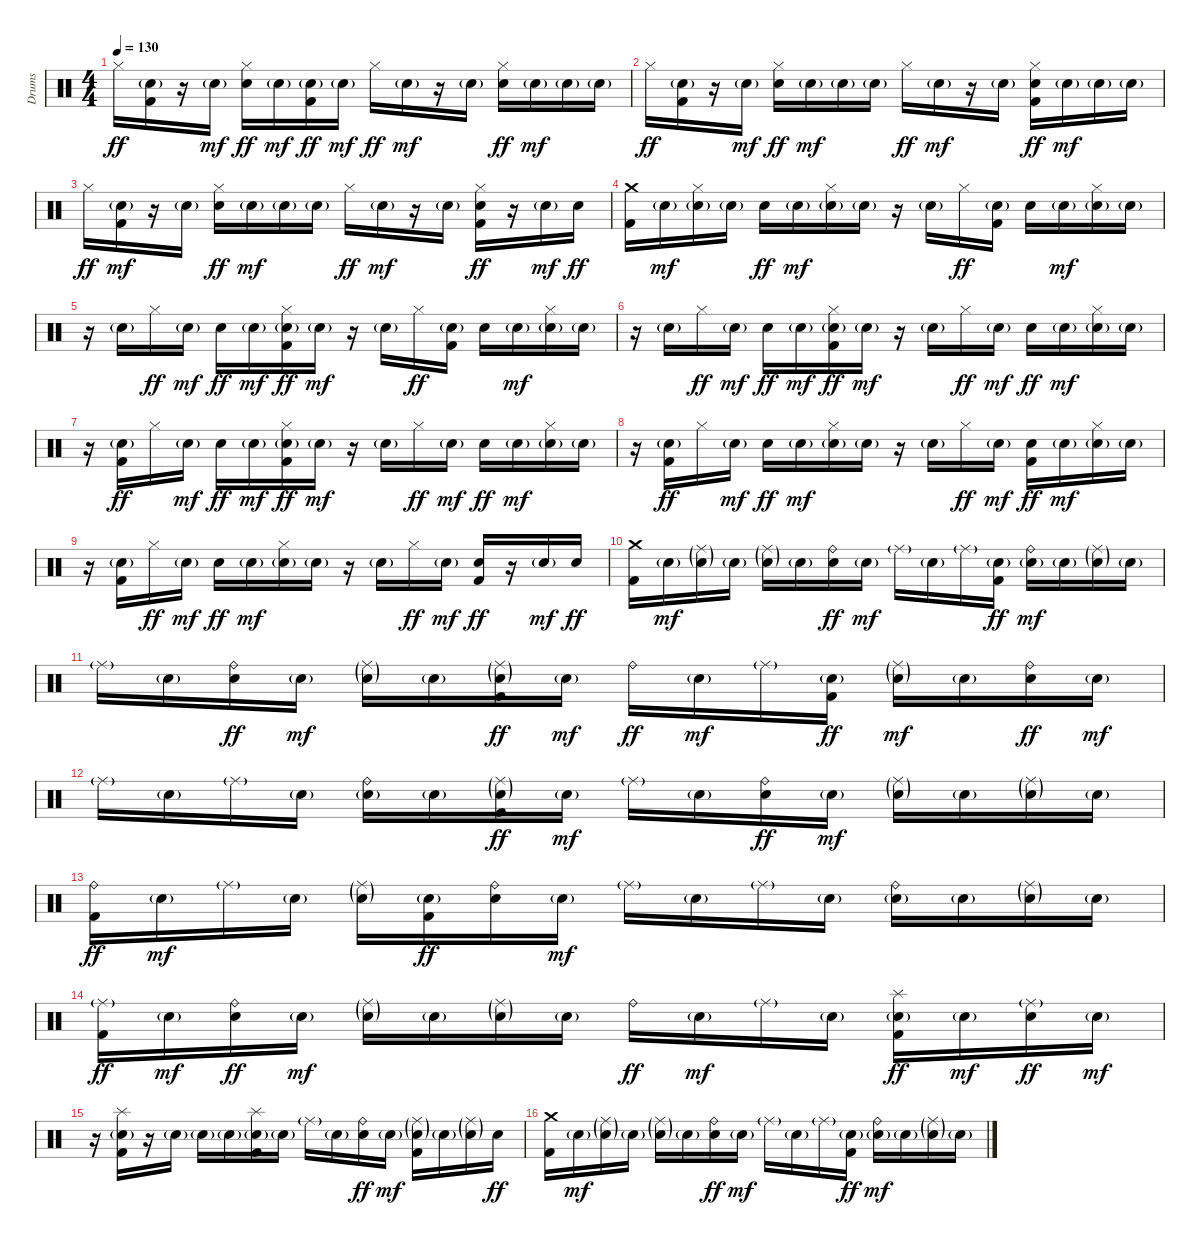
\track ("Drums" "Drums") {instrument percussion}
\staff {score}
\articulation defaults
\ts (4 4)
\tempo 130
\clef neutral
\ks c "Hi-Hat (closed)".16{dy ff}
("Electric Snare (hit)"{g} "Kick (hit) 2").16 r.16 "Electric Snare (hit)"{g}.16{dy mf} ("Hi-Hat (closed)" "Electric Snare (hit)").16{dy ff} "Electric Snare (hit)"{g}.16{dy mf} ("Electric Snare (hit)"{g} "Kick (hit) 2").16{dy ff} "Electric Snare (hit)"{g}.16{dy mf} "Hi-Hat (closed)".16{dy ff} "Electric Snare (hit)"{g}.16{dy mf} r.16 "Electric Snare (hit)"{g}.16 ("Hi-Hat (closed)" "Electric Snare (hit)").16{dy ff} "Electric Snare (hit)"{g}.16{dy mf} "Electric Snare (hit)"{g}.16 "Electric Snare (hit)"{g}.16 |
"Hi-Hat (closed)".16{dy ff} ("Electric Snare (hit)"{g} "Kick (hit) 2").16 r.16 "Electric Snare (hit)"{g}.16{dy mf} ("Hi-Hat (closed)" "Electric Snare (hit)").16{dy ff} "Electric Snare (hit)"{g}.16{dy mf} "Electric Snare (hit)"{g}.16 "Electric Snare (hit)"{g}.16 "Hi-Hat (closed)".16{dy ff} "Electric Snare (hit)"{g}.16{dy mf} r.16 "Electric Snare (hit)"{g}.16 ("Hi-Hat (closed)" "Electric Snare (hit)" "Kick (hit) 2").16{dy ff} "Electric Snare (hit)"{g}.16{dy mf} "Electric Snare (hit)"{g}.16 "Electric Snare (hit)"{g}.16 |
"Hi-Hat (closed)".16{dy ff} ("Electric Snare (hit)"{g} "Kick (hit) 2").16{dy mf} r.16 "Electric Snare (hit)"{g}.16 ("Hi-Hat (closed)" "Electric Snare (hit)").16{dy ff} "Electric Snare (hit)"{g}.16{dy mf} "Electric Snare (hit)"{g}.16 "Electric Snare (hit)"{g}.16 "Hi-Hat (closed)".16{dy ff} "Electric Snare (hit)"{g}.16{dy mf} r.16 "Electric Snare (hit)"{g}.16 ("Hi-Hat (closed)" "Electric Snare (hit)" "Kick (hit) 2").16{dy ff} r.16 "Electric Snare (hit)"{g}.16{dy mf} "Electric Snare (hit)".16{dy ff} |
("Crash medium (hit)" "Kick (hit) 2").16 "Electric Snare (hit)"{g}.16{dy mf} ("Hi-Hat (closed)" "Electric Snare (hit)"{g}).16 "Electric Snare (hit)"{g}.16 "Electric Snare (hit)".16{dy ff} "Electric Snare (hit)"{g}.16{dy mf} ("Hi-Hat (closed)" "Electric Snare (hit)"{g}).16 "Electric Snare (hit)"{g}.16 r.16 "Electric Snare (hit)"{g}.16 "Hi-Hat (closed)".16{dy ff} ("Electric Snare (hit)"{g} "Kick (hit) 2").16 "Electric Snare (hit)".16 "Electric Snare (hit)"{g}.16{dy mf} ("Hi-Hat (closed)" "Electric Snare (hit)"{g}).16 "Electric Snare (hit)"{g}.16 |
r.16 "Electric Snare (hit)"{g}.16 "Hi-Hat (closed)".16{dy ff} "Electric Snare (hit)"{g}.16{dy mf} "Electric Snare (hit)".16{dy ff} "Electric Snare (hit)"{g}.16{dy mf} ("Hi-Hat (closed)" "Electric Snare (hit)"{g} "Kick (hit) 2").16{dy ff} "Electric Snare (hit)"{g}.16{dy mf} r.16 "Electric Snare (hit)"{g}.16 "Hi-Hat (closed)".16{dy ff} ("Electric Snare (hit)"{g} "Kick (hit) 2").16 "Electric Snare (hit)".16 "Electric Snare (hit)"{g}.16{dy mf} ("Hi-Hat (closed)" "Electric Snare (hit)"{g}).16 "Electric Snare (hit)"{g}.16 |
r.16 "Electric Snare (hit)"{g}.16 "Hi-Hat (closed)".16{dy ff} "Electric Snare (hit)"{g}.16{dy mf} "Electric Snare (hit)".16{dy ff} "Electric Snare (hit)"{g}.16{dy mf} ("Hi-Hat (closed)" "Electric Snare (hit)"{g} "Kick (hit) 2").16{dy ff} "Electric Snare (hit)"{g}.16{dy mf} r.16 "Electric Snare (hit)"{g}.16 "Hi-Hat (closed)".16{dy ff} "Electric Snare (hit)"{g}.16{dy mf} "Electric Snare (hit)".16{dy ff} "Electric Snare (hit)"{g}.16{dy mf} ("Hi-Hat (closed)" "Electric Snare (hit)"{g}).16 "Electric Snare (hit)"{g}.16 |
r.16 ("Electric Snare (hit)"{g} "Kick (hit) 2").16{dy ff} "Hi-Hat (closed)".16 "Electric Snare (hit)"{g}.16{dy mf} "Electric Snare (hit)".16{dy ff} "Electric Snare (hit)"{g}.16{dy mf} ("Hi-Hat (closed)" "Electric Snare (hit)"{g} "Kick (hit) 2").16{dy ff} "Electric Snare (hit)"{g}.16{dy mf} r.16 "Electric Snare (hit)"{g}.16 "Hi-Hat (closed)".16{dy ff} "Electric Snare (hit)"{g}.16{dy mf} "Electric Snare (hit)".16{dy ff} "Electric Snare (hit)"{g}.16{dy mf} ("Hi-Hat (closed)" "Electric Snare (hit)"{g}).16 "Electric Snare (hit)"{g}.16 |
r.16 ("Electric Snare (hit)"{g} "Kick (hit) 2").16{dy ff} "Hi-Hat (closed)".16 "Electric Snare (hit)"{g}.16{dy mf} "Electric Snare (hit)".16{dy ff} "Electric Snare (hit)"{g}.16{dy mf} ("Hi-Hat (closed)" "Electric Snare (hit)"{g}).16 "Electric Snare (hit)"{g}.16 r.16 "Electric Snare (hit)"{g}.16 "Hi-Hat (closed)".16{dy ff} "Electric Snare (hit)"{g}.16{dy mf} ("Electric Snare (hit)" "Kick (hit) 2").16{dy ff} "Electric Snare (hit)"{g}.16{dy mf} ("Hi-Hat (closed)" "Electric Snare (hit)"{g}).16 "Electric Snare (hit)"{g}.16 |
r.16 ("Electric Snare (hit)"{g} "Kick (hit) 2").16 "Hi-Hat (closed)".16{dy ff} "Electric Snare (hit)"{g}.16{dy mf} "Electric Snare (hit)".16{dy ff} "Electric Snare (hit)"{g}.16{dy mf} ("Hi-Hat (closed)" "Electric Snare (hit)"{g}).16 "Electric Snare (hit)"{g}.16 r.16 "Electric Snare (hit)"{g}.16 "Hi-Hat (closed)".16{dy ff} "Electric Snare (hit)"{g}.16{dy mf} ("Electric Snare (hit)" "Kick (hit) 2").16{dy ff} r.16 "Electric Snare (hit)"{g}.16{dy mf} "Electric Snare (hit)".16{dy ff} |
("Crash medium (hit)" "Kick (hit) 2").16 "Electric Snare (hit)"{g}.16{dy mf} ("Ride (middle)"{g} "Electric Snare (hit)"{g}).16 "Electric Snare (hit)"{g}.16 ("Ride (middle)"{g} "Electric Snare (hit)"{g}).16 "Electric Snare (hit)"{g}.16 ("Ride (bell)" "Electric Snare (hit)").16{dy ff} "Electric Snare (hit)"{g}.16{dy mf} "Ride (middle)"{g}.16 "Electric Snare (hit)"{g}.16 "Ride (middle)"{g}.16 ("Electric Snare (hit)"{g} "Kick (hit) 2").16{dy ff} ("Ride (bell)" "Electric Snare (hit)"{g}).16{dy mf} "Electric Snare (hit)"{g}.16 ("Ride (middle)"{g} "Electric Snare (hit)"{g}).16 "Electric Snare (hit)"{g}.16 |
"Ride (middle)"{g}.16 "Electric Snare (hit)"{g}.16 ("Ride (bell)" "Electric Snare (hit)").16{dy ff} "Electric Snare (hit)"{g}.16{dy mf} ("Ride (middle)"{g} "Electric Snare (hit)"{g}).16 "Electric Snare (hit)"{g}.16 ("Ride (middle)"{g} "Electric Snare (hit)"{g} "Kick (hit) 2").16{dy ff} "Electric Snare (hit)"{g}.16{dy mf} "Ride (bell)".16{dy ff} "Electric Snare (hit)"{g}.16{dy mf} "Ride (middle)"{g}.16 ("Electric Snare (hit)"{g} "Kick (hit) 2").16{dy ff} ("Ride (middle)"{g} "Electric Snare (hit)"{g}).16{dy mf} "Electric Snare (hit)"{g}.16 ("Ride (bell)" "Electric Snare (hit)").16{dy ff} "Electric Snare (hit)"{g}.16{dy mf} |
"Ride (middle)"{g}.16 "Electric Snare (hit)"{g}.16 "Ride (middle)"{g}.16 "Electric Snare (hit)"{g}.16 ("Ride (bell)" "Electric Snare (hit)"{g}).16 "Electric Snare (hit)"{g}.16 ("Ride (middle)"{g} "Electric Snare (hit)"{g} "Kick (hit) 2").16{dy ff} "Electric Snare (hit)"{g}.16{dy mf} "Ride (middle)"{g}.16 "Electric Snare (hit)"{g}.16 ("Ride (bell)" "Electric Snare (hit)").16{dy ff} "Electric Snare (hit)"{g}.16{dy mf} ("Ride (middle)"{g} "Electric Snare (hit)"{g}).16 "Electric Snare (hit)"{g}.16 ("Ride (middle)"{g} "Electric Snare (hit)"{g}).16 "Electric Snare (hit)"{g}.16 |
("Ride (bell)" "Kick (hit) 2").16{dy ff} "Electric Snare (hit)"{g}.16{dy mf} "Ride (middle)"{g}.16 "Electric Snare (hit)"{g}.16 ("Ride (middle)"{g} "Electric Snare (hit)"{g}).16 ("Electric Snare (hit)"{g} "Kick (hit) 2").16{dy ff} ("Ride (bell)" "Electric Snare (hit)").16 "Electric Snare (hit)"{g}.16{dy mf} "Ride (middle)"{g}.16 "Electric Snare (hit)"{g}.16 "Ride (middle)"{g}.16 "Electric Snare (hit)"{g}.16 ("Ride (bell)" "Electric Snare (hit)"{g}).16 "Electric Snare (hit)"{g}.16 ("Ride (middle)"{g} "Electric Snare (hit)"{g}).16 "Electric Snare (hit)"{g}.16 |
("Ride (middle)"{g} "Kick (hit) 2").16{dy ff} "Electric Snare (hit)"{g}.16{dy mf} ("Ride (bell)" "Electric Snare (hit)").16{dy ff} "Electric Snare (hit)"{g}.16{dy mf} ("Ride (middle)"{g} "Electric Snare (hit)"{g}).16 "Electric Snare (hit)"{g}.16 ("Ride (middle)"{g} "Electric Snare (hit)"{g}).16 "Electric Snare (hit)"{g}.16 "Ride (bell)".16{dy ff} "Electric Snare (hit)"{g}.16{dy mf} "Ride (middle)"{g}.16 "Electric Snare (hit)"{g}.16 ("Splash (hit)" "Electric Snare (hit)"{g} "Kick (hit) 2").16{dy ff} "Electric Snare (hit)"{g}.16{dy mf} ("Ride (middle)"{g} "Electric Snare (hit)").16{dy ff} "Electric Snare (hit)"{g}.16{dy mf} |
r.16 ("Splash (hit)" "Electric Snare (hit)"{g} "Kick (hit) 2").16 r.16 "Electric Snare (hit)"{g}.16 "Electric Snare (hit)"{g}.16 "Electric Snare (hit)"{g}.16 ("Splash (hit)" "Electric Snare (hit)"{g} "Kick (hit) 2").16 "Electric Snare (hit)"{g}.16 "Ride (middle)"{g}.16 "Electric Snare (hit)"{g}.16 ("Ride (bell)" "Electric Snare (hit)").16{dy ff} "Electric Snare (hit)"{g}.16{dy mf} ("Ride (middle)"{g} "Electric Snare (hit)"{g} "Kick (hit) 2").16 "Electric Snare (hit)"{g}.16 ("Ride (middle)"{g} "Electric Snare (hit)"{g}).16 "Electric Snare (hit)".16{dy ff} |
("Crash medium (hit)" "Kick (hit) 2").16 "Electric Snare (hit)"{g}.16{dy mf} ("Ride (middle)"{g} "Electric Snare (hit)"{g}).16 "Electric Snare (hit)"{g}.16 ("Ride (middle)"{g} "Electric Snare (hit)"{g}).16 "Electric Snare (hit)"{g}.16 ("Ride (bell)" "Electric Snare (hit)").16{dy ff} "Electric Snare (hit)"{g}.16{dy mf} "Ride (middle)"{g}.16 "Electric Snare (hit)"{g}.16 "Ride (middle)"{g}.16 ("Electric Snare (hit)"{g} "Kick (hit) 2").16{dy ff} ("Ride (bell)" "Electric Snare (hit)"{g}).16{dy mf} "Electric Snare (hit)"{g}.16 ("Ride (middle)"{g} "Electric Snare (hit)"{g}).16 "Electric Snare (hit)"{g}.16
